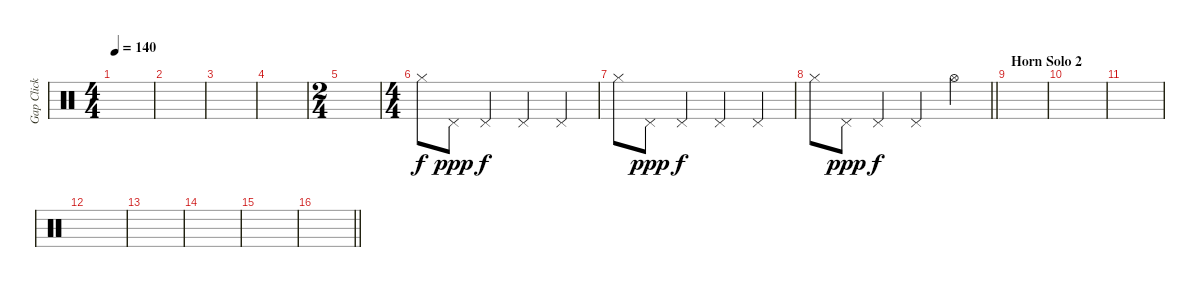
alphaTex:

\track ("Gap Click" "Gap Click") {instrument percussion}
\staff {score}
\articulation defaults
\ts (4 4)
\tempo 140
\clef neutral
\ks c
|
|
|
|
\ts (2 4)
|
\ts (4 4)
"Hi-Hat (closed)".8 "Pedal Hi-Hat (hit)".8{dy ppp} "Pedal Hi-Hat (hit)".4{dy f} "Pedal Hi-Hat (hit)".4 "Pedal Hi-Hat (hit)".4 |
"Hi-Hat (closed)".8 "Pedal Hi-Hat (hit)".8{dy ppp} "Pedal Hi-Hat (hit)".4{dy f} "Pedal Hi-Hat (hit)".4 "Pedal Hi-Hat (hit)".4 |
\barLineRight lightlight "Hi-Hat (closed)".8 "Pedal Hi-Hat (hit)".8{dy ppp} "Pedal Hi-Hat (hit)".4{dy f} "Pedal Hi-Hat (hit)".4 "Hi-Hat (open)".4
|
\section ("" "Horn Solo 2")
|
|
|
|
|
|
|
\barLineRight lightlight
